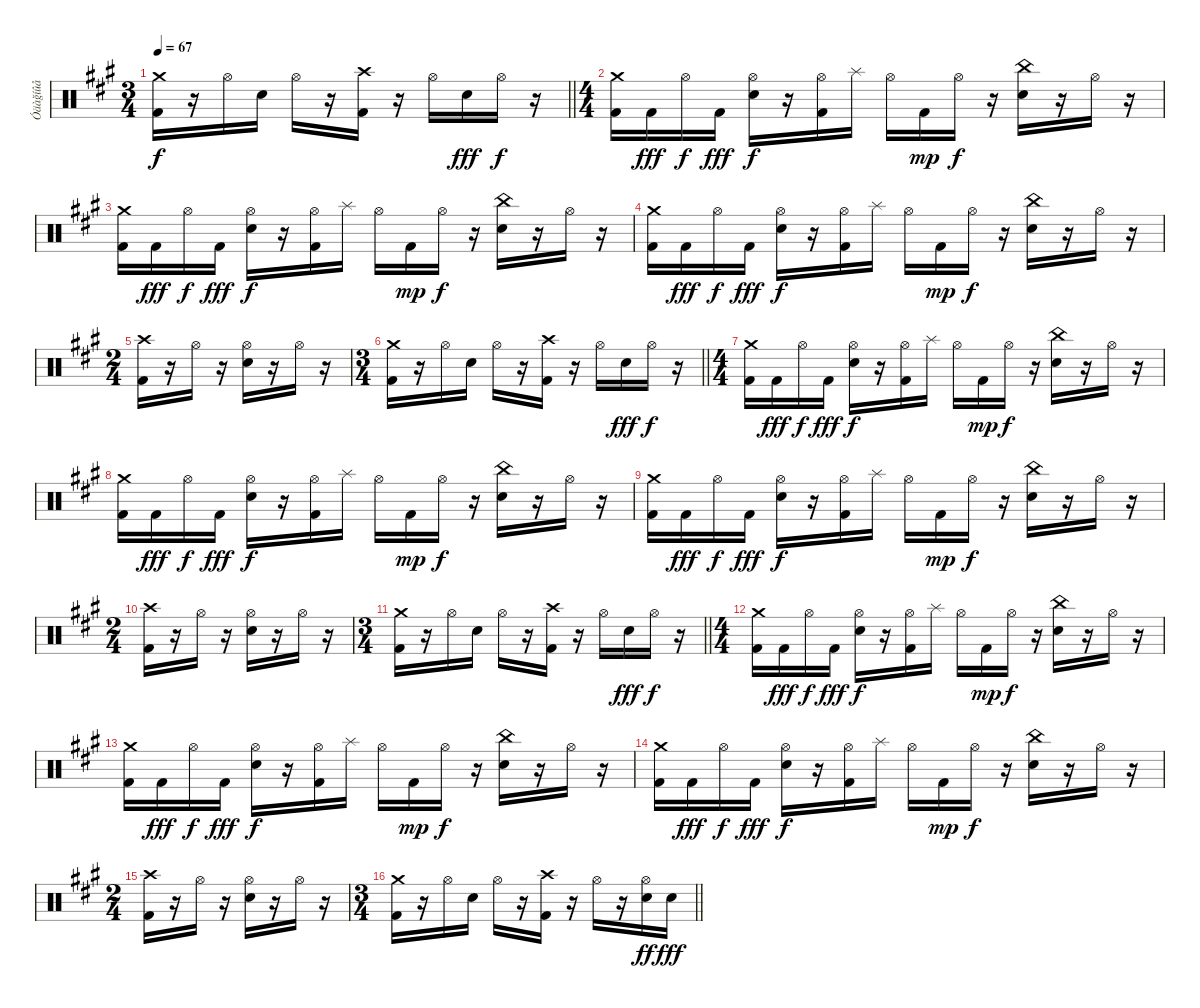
\track ("Óäàğíûå" "Óäàğíûå") {instrument percussion}
\staff {score}
\articulation defaults
\ts (3 4)
\tempo 67
\clef neutral
\barLineRight lightlight
\ks a
("Crash medium (hit)" "Kick (hit) 2").16{dy f} r.16 "Hi-Hat (open)".16 "Electric Snare (hit)".16 "Hi-Hat (open)".16 r.16 ("Crash high (hit)" "Kick (hit) 2").16 r.16 "Hi-Hat (open)".16 "Electric Snare (hit)".16{dy fff} "Hi-Hat (open)".16{dy f} r.16 |
\ts (4 4)
("Crash medium (hit)" "Kick (hit) 2").16 "Kick (hit) 2".16{dy fff} "Hi-Hat (open)".16{dy f} "Kick (hit) 2".16{dy fff} ("Hi-Hat (open)" "Electric Snare (hit)").16{dy f} r.16 ("Hi-Hat (open)" "Kick (hit) 2").16 "Splash (hit)".16 "Hi-Hat (open)".16 "Kick (hit) 2".16{dy mp} "Hi-Hat (open)".16{dy f} r.16 ("China (hit)" "Electric Snare (hit)").16 r.16 "Hi-Hat (open)".16 r.16 |
("Crash medium (hit)" "Kick (hit) 2").16 "Kick (hit) 2".16{dy fff} "Hi-Hat (open)".16{dy f} "Kick (hit) 2".16{dy fff} ("Hi-Hat (open)" "Electric Snare (hit)").16{dy f} r.16 ("Hi-Hat (open)" "Kick (hit) 2").16 "Splash (hit)".16 "Hi-Hat (open)".16 "Kick (hit) 2".16{dy mp} "Hi-Hat (open)".16{dy f} r.16 ("China (hit)" "Electric Snare (hit)").16 r.16 "Hi-Hat (open)".16 r.16 |
("Crash medium (hit)" "Kick (hit) 2").16 "Kick (hit) 2".16{dy fff} "Hi-Hat (open)".16{dy f} "Kick (hit) 2".16{dy fff} ("Hi-Hat (open)" "Electric Snare (hit)").16{dy f} r.16 ("Hi-Hat (open)" "Kick (hit) 2").16 "Splash (hit)".16 "Hi-Hat (open)".16 "Kick (hit) 2".16{dy mp} "Hi-Hat (open)".16{dy f} r.16 ("China (hit)" "Electric Snare (hit)").16 r.16 "Hi-Hat (open)".16 r.16 |
\ts (2 4)
("Crash high (hit)" "Kick (hit) 2").16 r.16 "Hi-Hat (open)".16 r.16 ("Hi-Hat (open)" "Electric Snare (hit)").16 r.16 "Hi-Hat (open)".16 r.16 |
\ts (3 4)
\barLineRight lightlight
("Crash medium (hit)" "Kick (hit) 2").16 r.16 "Hi-Hat (open)".16 "Electric Snare (hit)".16 "Hi-Hat (open)".16 r.16 ("Crash high (hit)" "Kick (hit) 2").16 r.16 "Hi-Hat (open)".16 "Electric Snare (hit)".16{dy fff} "Hi-Hat (open)".16{dy f} r.16 |
\ts (4 4)
("Crash medium (hit)" "Kick (hit) 2").16 "Kick (hit) 2".16{dy fff} "Hi-Hat (open)".16{dy f} "Kick (hit) 2".16{dy fff} ("Hi-Hat (open)" "Electric Snare (hit)").16{dy f} r.16 ("Hi-Hat (open)" "Kick (hit) 2").16 "Splash (hit)".16 "Hi-Hat (open)".16 "Kick (hit) 2".16{dy mp} "Hi-Hat (open)".16{dy f} r.16 ("China (hit)" "Electric Snare (hit)").16 r.16 "Hi-Hat (open)".16 r.16 |
("Crash medium (hit)" "Kick (hit) 2").16 "Kick (hit) 2".16{dy fff} "Hi-Hat (open)".16{dy f} "Kick (hit) 2".16{dy fff} ("Hi-Hat (open)" "Electric Snare (hit)").16{dy f} r.16 ("Hi-Hat (open)" "Kick (hit) 2").16 "Splash (hit)".16 "Hi-Hat (open)".16 "Kick (hit) 2".16{dy mp} "Hi-Hat (open)".16{dy f} r.16 ("China (hit)" "Electric Snare (hit)").16 r.16 "Hi-Hat (open)".16 r.16 |
("Crash medium (hit)" "Kick (hit) 2").16 "Kick (hit) 2".16{dy fff} "Hi-Hat (open)".16{dy f} "Kick (hit) 2".16{dy fff} ("Hi-Hat (open)" "Electric Snare (hit)").16{dy f} r.16 ("Hi-Hat (open)" "Kick (hit) 2").16 "Splash (hit)".16 "Hi-Hat (open)".16 "Kick (hit) 2".16{dy mp} "Hi-Hat (open)".16{dy f} r.16 ("China (hit)" "Electric Snare (hit)").16 r.16 "Hi-Hat (open)".16 r.16 |
\ts (2 4)
("Crash high (hit)" "Kick (hit) 2").16 r.16 "Hi-Hat (open)".16 r.16 ("Hi-Hat (open)" "Electric Snare (hit)").16 r.16 "Hi-Hat (open)".16 r.16 |
\ts (3 4)
\barLineRight lightlight
("Crash medium (hit)" "Kick (hit) 2").16 r.16 "Hi-Hat (open)".16 "Electric Snare (hit)".16 "Hi-Hat (open)".16 r.16 ("Crash high (hit)" "Kick (hit) 2").16 r.16 "Hi-Hat (open)".16 "Electric Snare (hit)".16{dy fff} "Hi-Hat (open)".16{dy f} r.16 |
\ts (4 4)
("Crash medium (hit)" "Kick (hit) 2").16 "Kick (hit) 2".16{dy fff} "Hi-Hat (open)".16{dy f} "Kick (hit) 2".16{dy fff} ("Hi-Hat (open)" "Electric Snare (hit)").16{dy f} r.16 ("Hi-Hat (open)" "Kick (hit) 2").16 "Splash (hit)".16 "Hi-Hat (open)".16 "Kick (hit) 2".16{dy mp} "Hi-Hat (open)".16{dy f} r.16 ("China (hit)" "Electric Snare (hit)").16 r.16 "Hi-Hat (open)".16 r.16 |
("Crash medium (hit)" "Kick (hit) 2").16 "Kick (hit) 2".16{dy fff} "Hi-Hat (open)".16{dy f} "Kick (hit) 2".16{dy fff} ("Hi-Hat (open)" "Electric Snare (hit)").16{dy f} r.16 ("Hi-Hat (open)" "Kick (hit) 2").16 "Splash (hit)".16 "Hi-Hat (open)".16 "Kick (hit) 2".16{dy mp} "Hi-Hat (open)".16{dy f} r.16 ("China (hit)" "Electric Snare (hit)").16 r.16 "Hi-Hat (open)".16 r.16 |
("Crash medium (hit)" "Kick (hit) 2").16 "Kick (hit) 2".16{dy fff} "Hi-Hat (open)".16{dy f} "Kick (hit) 2".16{dy fff} ("Hi-Hat (open)" "Electric Snare (hit)").16{dy f} r.16 ("Hi-Hat (open)" "Kick (hit) 2").16 "Splash (hit)".16 "Hi-Hat (open)".16 "Kick (hit) 2".16{dy mp} "Hi-Hat (open)".16{dy f} r.16 ("China (hit)" "Electric Snare (hit)").16 r.16 "Hi-Hat (open)".16 r.16 |
\ts (2 4)
("Crash high (hit)" "Kick (hit) 2").16 r.16 "Hi-Hat (open)".16 r.16 ("Hi-Hat (open)" "Electric Snare (hit)").16 r.16 "Hi-Hat (open)".16 r.16 |
\ts (3 4)
\barLineRight lightlight
("Crash medium (hit)" "Kick (hit) 2").16 r.16 "Hi-Hat (open)".16 "Electric Snare (hit)".16 "Hi-Hat (open)".16 r.16 ("Crash high (hit)" "Kick (hit) 2").16 r.16 "Hi-Hat (open)".16 r.16 ("Hi-Hat (open)" "Electric Snare (hit)").16{dy ff} "Electric Snare (hit)".16{dy fff}
